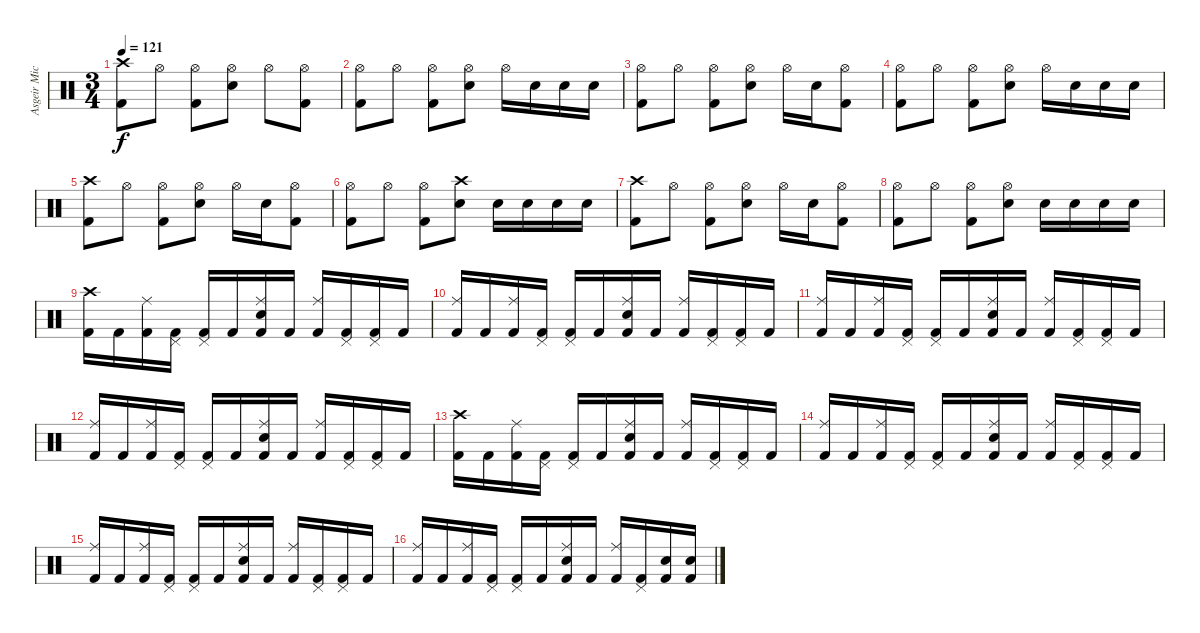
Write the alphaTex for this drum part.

\track ("Asgeir Mickelson" "Asgeir Mic") {instrument percussion}
\staff {score}
\articulation defaults
\ts (3 4)
\tempo 121
\clef neutral
\ks c
("Crash high (hit)" "Kick (hit) 2").8{dy f} "Hi-Hat (open)".8 ("Hi-Hat (open)" "Kick (hit) 2").8 ("Hi-Hat (open)" "Electric Snare (hit)").8 "Hi-Hat (open)".8 ("Hi-Hat (open)" "Kick (hit) 2").8 |
("Hi-Hat (open)" "Kick (hit) 2").8 "Hi-Hat (open)".8 ("Hi-Hat (open)" "Kick (hit) 2").8 ("Hi-Hat (open)" "Electric Snare (hit)").8 "Hi-Hat (open)".16 "Electric Snare (hit)".16 "Electric Snare (hit)".16 "Electric Snare (hit)".16 |
("Hi-Hat (open)" "Kick (hit) 2").8 "Hi-Hat (open)".8 ("Hi-Hat (open)" "Kick (hit) 2").8 ("Hi-Hat (open)" "Electric Snare (hit)").8 "Hi-Hat (open)".16 "Electric Snare (hit)".16 ("Hi-Hat (open)" "Kick (hit) 2").8 |
("Hi-Hat (open)" "Kick (hit) 2").8 "Hi-Hat (open)".8 ("Hi-Hat (open)" "Kick (hit) 2").8 ("Hi-Hat (open)" "Electric Snare (hit)").8 "Hi-Hat (open)".16 "Electric Snare (hit)".16 "Electric Snare (hit)".16 "Electric Snare (hit)".16 |
("Crash high (hit)" "Kick (hit) 2").8 "Hi-Hat (open)".8 ("Hi-Hat (open)" "Kick (hit) 2").8 ("Hi-Hat (open)" "Electric Snare (hit)").8 "Hi-Hat (open)".16 "Electric Snare (hit)".16 ("Hi-Hat (open)" "Kick (hit) 2").8 |
("Hi-Hat (open)" "Kick (hit) 2").8 "Hi-Hat (open)".8 ("Hi-Hat (open)" "Kick (hit) 2").8 ("Crash high (hit)" "Electric Snare (hit)").8 "Electric Snare (hit)".16 "Electric Snare (hit)".16 "Electric Snare (hit)".16 "Electric Snare (hit)".16 |
("Crash high (hit)" "Kick (hit) 2").8 "Hi-Hat (open)".8 ("Hi-Hat (open)" "Kick (hit) 2").8 ("Hi-Hat (open)" "Electric Snare (hit)").8 "Hi-Hat (open)".16 "Electric Snare (hit)".16 ("Hi-Hat (open)" "Kick (hit) 2").8 |
("Hi-Hat (open)" "Kick (hit) 2").8 "Hi-Hat (open)".8 ("Hi-Hat (open)" "Kick (hit) 2").8 ("Hi-Hat (open)" "Electric Snare (hit)").8 "Electric Snare (hit)".16 "Electric Snare (hit)".16 "Electric Snare (hit)".16 "Electric Snare (hit)".16 |
("Crash high (hit)" "Kick (hit) 2").16 "Kick (hit) 2".16 ("Ride (middle)" "Kick (hit) 2").16 ("Pedal Hi-Hat (hit)" "Kick (hit) 2").16 ("Pedal Hi-Hat (hit)" "Kick (hit) 2").16 "Kick (hit) 2".16 ("Ride (middle)" "Electric Snare (hit)" "Kick (hit) 2").16 "Kick (hit) 2".16 ("Ride (middle)" "Kick (hit) 2").16 ("Pedal Hi-Hat (hit)" "Kick (hit) 2").16 ("Pedal Hi-Hat (hit)" "Kick (hit) 2").16 "Kick (hit) 2".16 |
("Ride (middle)" "Kick (hit) 2").16 "Kick (hit) 2".16 ("Ride (middle)" "Kick (hit) 2").16 ("Pedal Hi-Hat (hit)" "Kick (hit) 2").16 ("Pedal Hi-Hat (hit)" "Kick (hit) 2").16 "Kick (hit) 2".16 ("Ride (middle)" "Electric Snare (hit)" "Kick (hit) 2").16 "Kick (hit) 2".16 ("Ride (middle)" "Kick (hit) 2").16 ("Pedal Hi-Hat (hit)" "Kick (hit) 2").16 ("Pedal Hi-Hat (hit)" "Kick (hit) 2").16 "Kick (hit) 2".16 |
("Ride (middle)" "Kick (hit) 2").16 "Kick (hit) 2".16 ("Ride (middle)" "Kick (hit) 2").16 ("Pedal Hi-Hat (hit)" "Kick (hit) 2").16 ("Pedal Hi-Hat (hit)" "Kick (hit) 2").16 "Kick (hit) 2".16 ("Ride (middle)" "Electric Snare (hit)" "Kick (hit) 2").16 "Kick (hit) 2".16 ("Ride (middle)" "Kick (hit) 2").16 ("Pedal Hi-Hat (hit)" "Kick (hit) 2").16 ("Pedal Hi-Hat (hit)" "Kick (hit) 2").16 "Kick (hit) 2".16 |
("Ride (middle)" "Kick (hit) 2").16 "Kick (hit) 2".16 ("Ride (middle)" "Kick (hit) 2").16 ("Pedal Hi-Hat (hit)" "Kick (hit) 2").16 ("Pedal Hi-Hat (hit)" "Kick (hit) 2").16 "Kick (hit) 2".16 ("Ride (middle)" "Electric Snare (hit)" "Kick (hit) 2").16 "Kick (hit) 2".16 ("Ride (middle)" "Kick (hit) 2").16 ("Pedal Hi-Hat (hit)" "Kick (hit) 2").16 ("Pedal Hi-Hat (hit)" "Kick (hit) 2").16 "Kick (hit) 2".16 |
("Crash high (hit)" "Kick (hit) 2").16 "Kick (hit) 2".16 ("Ride (middle)" "Kick (hit) 2").16 ("Pedal Hi-Hat (hit)" "Kick (hit) 2").16 ("Pedal Hi-Hat (hit)" "Kick (hit) 2").16 "Kick (hit) 2".16 ("Ride (middle)" "Electric Snare (hit)" "Kick (hit) 2").16 "Kick (hit) 2".16 ("Ride (middle)" "Kick (hit) 2").16 ("Pedal Hi-Hat (hit)" "Kick (hit) 2").16 ("Pedal Hi-Hat (hit)" "Kick (hit) 2").16 "Kick (hit) 2".16 |
("Ride (middle)" "Kick (hit) 2").16 "Kick (hit) 2".16 ("Ride (middle)" "Kick (hit) 2").16 ("Pedal Hi-Hat (hit)" "Kick (hit) 2").16 ("Pedal Hi-Hat (hit)" "Kick (hit) 2").16 "Kick (hit) 2".16 ("Ride (middle)" "Electric Snare (hit)" "Kick (hit) 2").16 "Kick (hit) 2".16 ("Ride (middle)" "Kick (hit) 2").16 ("Pedal Hi-Hat (hit)" "Kick (hit) 2").16 ("Pedal Hi-Hat (hit)" "Kick (hit) 2").16 "Kick (hit) 2".16 |
("Ride (middle)" "Kick (hit) 2").16 "Kick (hit) 2".16 ("Ride (middle)" "Kick (hit) 2").16 ("Pedal Hi-Hat (hit)" "Kick (hit) 2").16 ("Pedal Hi-Hat (hit)" "Kick (hit) 2").16 "Kick (hit) 2".16 ("Ride (middle)" "Electric Snare (hit)" "Kick (hit) 2").16 "Kick (hit) 2".16 ("Ride (middle)" "Kick (hit) 2").16 ("Pedal Hi-Hat (hit)" "Kick (hit) 2").16 ("Pedal Hi-Hat (hit)" "Kick (hit) 2").16 "Kick (hit) 2".16 |
("Ride (middle)" "Kick (hit) 2").16 "Kick (hit) 2".16 ("Ride (middle)" "Kick (hit) 2").16 ("Pedal Hi-Hat (hit)" "Kick (hit) 2").16 ("Pedal Hi-Hat (hit)" "Kick (hit) 2").16 "Kick (hit) 2".16 ("Ride (middle)" "Electric Snare (hit)" "Kick (hit) 2").16 "Kick (hit) 2".16 ("Ride (middle)" "Kick (hit) 2").16 ("Pedal Hi-Hat (hit)" "Kick (hit) 2").16 ("Electric Snare (hit)" "Kick (hit) 2").16 ("Electric Snare (hit)" "Kick (hit) 2").16
